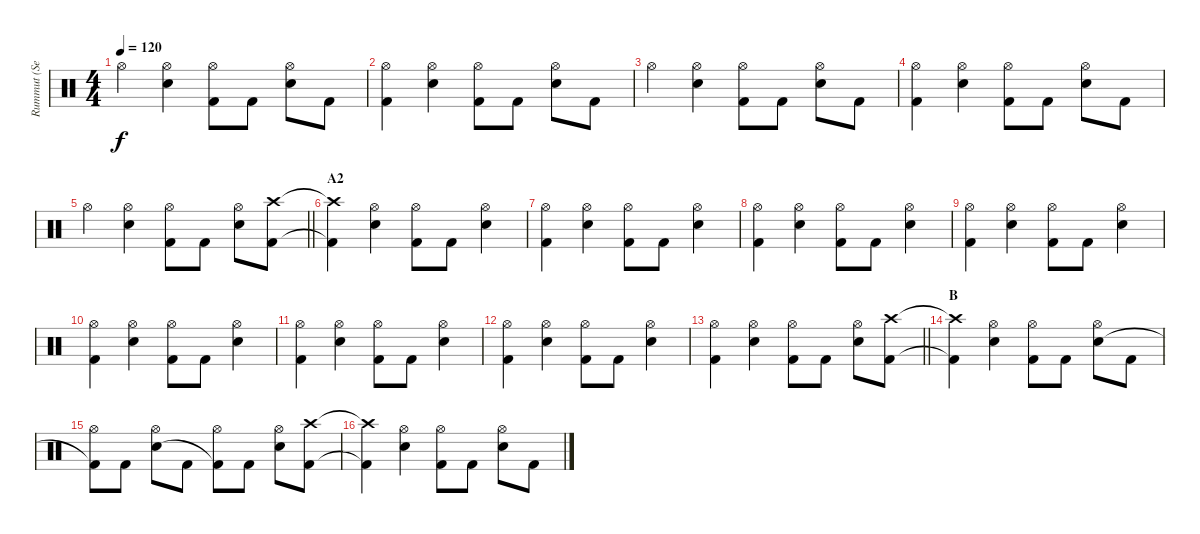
\track ("Rummut (Seppo Pohjolainen)" "Rummut (Se") {instrument percussion}
\staff {score}
\articulation defaults
\ts (4 4)
\tempo 120
\clef neutral
\ks c "Hi-Hat (open)".4{dy f}
("Hi-Hat (open)" "Electric Snare (hit)").4 ("Hi-Hat (open)" "Kick (hit) 2").8 "Kick (hit) 2".8 ("Hi-Hat (open)" "Electric Snare (hit)").8 "Kick (hit) 2".8 |
("Hi-Hat (open)" "Kick (hit) 2").4 ("Hi-Hat (open)" "Electric Snare (hit)").4 ("Hi-Hat (open)" "Kick (hit) 2").8 "Kick (hit) 2".8 ("Hi-Hat (open)" "Electric Snare (hit)").8 "Kick (hit) 2".8 |
"Hi-Hat (open)".4 ("Hi-Hat (open)" "Electric Snare (hit)").4 ("Hi-Hat (open)" "Kick (hit) 2").8 "Kick (hit) 2".8 ("Hi-Hat (open)" "Electric Snare (hit)").8 "Kick (hit) 2".8 |
("Hi-Hat (open)" "Kick (hit) 2").4 ("Hi-Hat (open)" "Electric Snare (hit)").4 ("Hi-Hat (open)" "Kick (hit) 2").8 "Kick (hit) 2".8 ("Hi-Hat (open)" "Electric Snare (hit)").8 "Kick (hit) 2".8 |
\barLineRight lightlight "Hi-Hat (open)".4
("Hi-Hat (open)" "Electric Snare (hit)").4 ("Hi-Hat (open)" "Kick (hit) 2").8 "Kick (hit) 2".8 ("Hi-Hat (open)" "Electric Snare (hit)").8 ("Crash high (hit)" "Kick (hit) 2").8 |
\section ("" "A2")
("Crash high (hit)"{t} "Kick (hit) 2"{t}).4 ("Hi-Hat (open)" "Electric Snare (hit)").4 ("Hi-Hat (open)" "Kick (hit) 2").8 "Kick (hit) 2".8 ("Hi-Hat (open)" "Electric Snare (hit)").4 |
("Hi-Hat (open)" "Kick (hit) 2").4 ("Hi-Hat (open)" "Electric Snare (hit)").4 ("Hi-Hat (open)" "Kick (hit) 2").8 "Kick (hit) 2".8 ("Hi-Hat (open)" "Electric Snare (hit)").4 |
("Hi-Hat (open)" "Kick (hit) 2").4 ("Hi-Hat (open)" "Electric Snare (hit)").4 ("Hi-Hat (open)" "Kick (hit) 2").8 "Kick (hit) 2".8 ("Hi-Hat (open)" "Electric Snare (hit)").4 |
("Hi-Hat (open)" "Kick (hit) 2").4 ("Hi-Hat (open)" "Electric Snare (hit)").4 ("Hi-Hat (open)" "Kick (hit) 2").8 "Kick (hit) 2".8 ("Hi-Hat (open)" "Electric Snare (hit)").4 |
("Hi-Hat (open)" "Kick (hit) 2").4 ("Hi-Hat (open)" "Electric Snare (hit)").4 ("Hi-Hat (open)" "Kick (hit) 2").8 "Kick (hit) 2".8 ("Hi-Hat (open)" "Electric Snare (hit)").4 |
("Hi-Hat (open)" "Kick (hit) 2").4 ("Hi-Hat (open)" "Electric Snare (hit)").4 ("Hi-Hat (open)" "Kick (hit) 2").8 "Kick (hit) 2".8 ("Hi-Hat (open)" "Electric Snare (hit)").4 |
("Hi-Hat (open)" "Kick (hit) 2").4 ("Hi-Hat (open)" "Electric Snare (hit)").4 ("Hi-Hat (open)" "Kick (hit) 2").8 "Kick (hit) 2".8 ("Hi-Hat (open)" "Electric Snare (hit)").4 |
\barLineRight lightlight
("Hi-Hat (open)" "Kick (hit) 2").4 ("Hi-Hat (open)" "Electric Snare (hit)").4 ("Hi-Hat (open)" "Kick (hit) 2").8 "Kick (hit) 2".8 ("Hi-Hat (open)" "Electric Snare (hit)").8 ("Crash high (hit)" "Kick (hit) 2").8 |
\section ("" "B")
("Crash high (hit)"{t} "Kick (hit) 2"{t}).4 ("Hi-Hat (open)" "Electric Snare (hit)").4 ("Hi-Hat (open)" "Kick (hit) 2").8 "Kick (hit) 2".8 ("Hi-Hat (open)" "Electric Snare (hit)").8 "Kick (hit) 2".8 |
("Hi-Hat (open)" "Kick (hit) 2"{t}).8 "Kick (hit) 2".8 ("Hi-Hat (open)" "Electric Snare (hit)").8 "Kick (hit) 2".8 ("Hi-Hat (open)" "Kick (hit) 2"{t}).8 "Kick (hit) 2".8 ("Hi-Hat (open)" "Electric Snare (hit)").8 ("Crash high (hit)" "Kick (hit) 2").8 |
("Crash high (hit)"{t} "Kick (hit) 2"{t}).4 ("Hi-Hat (open)" "Electric Snare (hit)").4 ("Hi-Hat (open)" "Kick (hit) 2").8 "Kick (hit) 2".8 ("Hi-Hat (open)" "Electric Snare (hit)").8 "Kick (hit) 2".8
